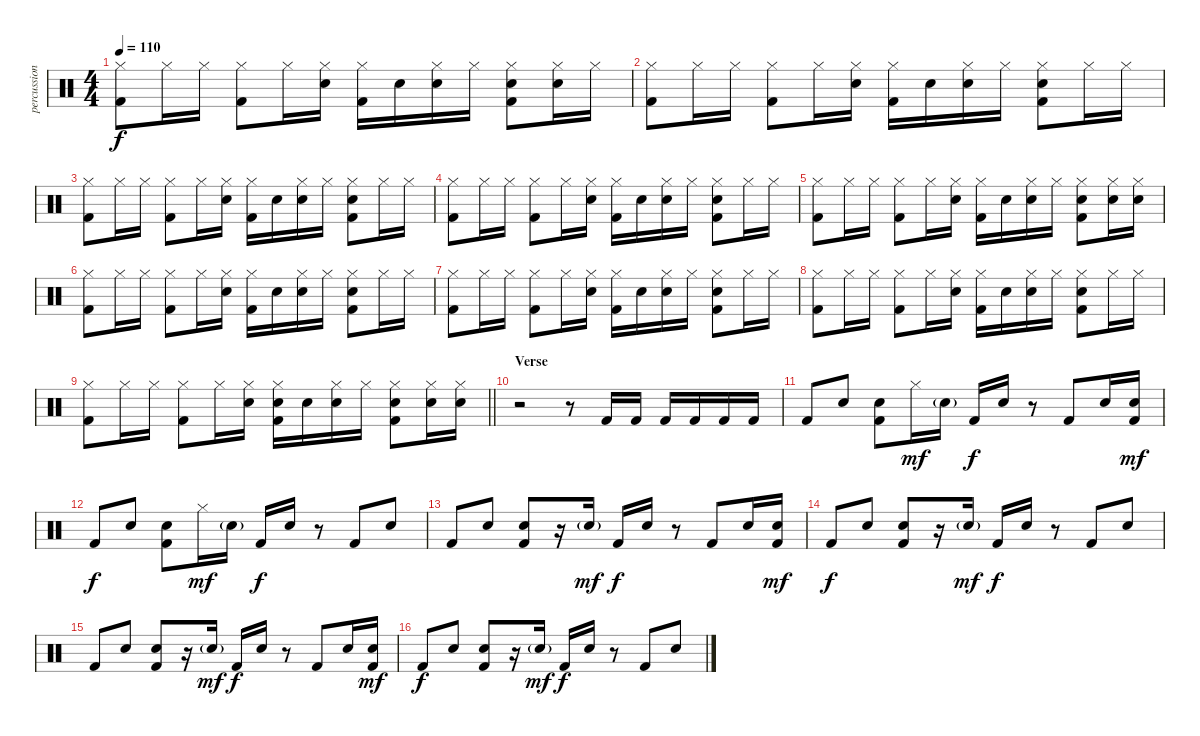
\track ("percussion []" "percussion") {instrument percussion}
\staff {score}
\articulation defaults
\ts (4 4)
\tempo 110
\clef neutral
\ks c
("Hi-Hat (closed)" "Kick (hit) 2").8{dy f} "Hi-Hat (closed)".16 "Hi-Hat (closed)".16 ("Hi-Hat (closed)" "Kick (hit) 2").8 "Hi-Hat (closed)".16 ("Electric Snare (hit)" "Hi-Hat (closed)").16 ("Hi-Hat (closed)" "Kick (hit) 2").16 "Electric Snare (hit)".16 ("Electric Snare (hit)" "Hi-Hat (closed)").16 "Hi-Hat (closed)".16 ("Electric Snare (hit)" "Hi-Hat (closed)" "Kick (hit) 2").8 ("Electric Snare (hit)" "Hi-Hat (closed)").16 "Hi-Hat (closed)".16 |
("Hi-Hat (closed)" "Kick (hit) 2").8 "Hi-Hat (closed)".16 "Hi-Hat (closed)".16 ("Hi-Hat (closed)" "Kick (hit) 2").8 "Hi-Hat (closed)".16 ("Electric Snare (hit)" "Hi-Hat (closed)").16 ("Hi-Hat (closed)" "Kick (hit) 2").16 "Electric Snare (hit)".16 ("Electric Snare (hit)" "Hi-Hat (closed)").16 "Hi-Hat (closed)".16 ("Electric Snare (hit)" "Hi-Hat (closed)" "Kick (hit) 2").8 "Hi-Hat (closed)".16 "Hi-Hat (closed)".16 |
("Hi-Hat (closed)" "Kick (hit) 2").8 "Hi-Hat (closed)".16 "Hi-Hat (closed)".16 ("Hi-Hat (closed)" "Kick (hit) 2").8 "Hi-Hat (closed)".16 ("Electric Snare (hit)" "Hi-Hat (closed)").16 ("Hi-Hat (closed)" "Kick (hit) 2").16 "Electric Snare (hit)".16 ("Electric Snare (hit)" "Hi-Hat (closed)").16 "Hi-Hat (closed)".16 ("Electric Snare (hit)" "Hi-Hat (closed)" "Kick (hit) 2").8 "Hi-Hat (closed)".16 "Hi-Hat (closed)".16 |
("Hi-Hat (closed)" "Kick (hit) 2").8 "Hi-Hat (closed)".16 "Hi-Hat (closed)".16 ("Hi-Hat (closed)" "Kick (hit) 2").8 "Hi-Hat (closed)".16 ("Electric Snare (hit)" "Hi-Hat (closed)").16 ("Hi-Hat (closed)" "Kick (hit) 2").16 "Electric Snare (hit)".16 ("Electric Snare (hit)" "Hi-Hat (closed)").16 "Hi-Hat (closed)".16 ("Electric Snare (hit)" "Hi-Hat (closed)" "Kick (hit) 2").8 "Hi-Hat (closed)".16 "Hi-Hat (closed)".16 |
("Hi-Hat (closed)" "Kick (hit) 2").8 "Hi-Hat (closed)".16 "Hi-Hat (closed)".16 ("Hi-Hat (closed)" "Kick (hit) 2").8 "Hi-Hat (closed)".16 ("Electric Snare (hit)" "Hi-Hat (closed)").16 ("Hi-Hat (closed)" "Kick (hit) 2").16 "Electric Snare (hit)".16 ("Electric Snare (hit)" "Hi-Hat (closed)").16 "Hi-Hat (closed)".16 ("Electric Snare (hit)" "Hi-Hat (closed)" "Kick (hit) 2").8 ("Electric Snare (hit)" "Hi-Hat (closed)").16 ("Electric Snare (hit)" "Hi-Hat (closed)").16 |
("Hi-Hat (closed)" "Kick (hit) 2").8 "Hi-Hat (closed)".16 "Hi-Hat (closed)".16 ("Hi-Hat (closed)" "Kick (hit) 2").8 "Hi-Hat (closed)".16 ("Electric Snare (hit)" "Hi-Hat (closed)").16 ("Hi-Hat (closed)" "Kick (hit) 2").16 "Electric Snare (hit)".16 ("Electric Snare (hit)" "Hi-Hat (closed)").16 "Hi-Hat (closed)".16 ("Electric Snare (hit)" "Hi-Hat (closed)" "Kick (hit) 2").8 "Hi-Hat (closed)".16 "Hi-Hat (closed)".16 |
("Hi-Hat (closed)" "Kick (hit) 2").8 "Hi-Hat (closed)".16 "Hi-Hat (closed)".16 ("Hi-Hat (closed)" "Kick (hit) 2").8 "Hi-Hat (closed)".16 ("Electric Snare (hit)" "Hi-Hat (closed)").16 ("Hi-Hat (closed)" "Kick (hit) 2").16 "Electric Snare (hit)".16 ("Electric Snare (hit)" "Hi-Hat (closed)").16 "Hi-Hat (closed)".16 ("Electric Snare (hit)" "Hi-Hat (closed)" "Kick (hit) 2").8 "Hi-Hat (closed)".16 "Hi-Hat (closed)".16 |
("Hi-Hat (closed)" "Kick (hit) 2").8 "Hi-Hat (closed)".16 "Hi-Hat (closed)".16 ("Hi-Hat (closed)" "Kick (hit) 2").8 "Hi-Hat (closed)".16 ("Electric Snare (hit)" "Hi-Hat (closed)").16 ("Hi-Hat (closed)" "Kick (hit) 2").16 "Electric Snare (hit)".16 ("Electric Snare (hit)" "Hi-Hat (closed)").16 "Hi-Hat (closed)".16 ("Electric Snare (hit)" "Hi-Hat (closed)" "Kick (hit) 2").8 "Hi-Hat (closed)".16 "Hi-Hat (closed)".16 |
\barLineRight lightlight
("Hi-Hat (closed)" "Kick (hit) 2").8 "Hi-Hat (closed)".16 "Hi-Hat (closed)".16 ("Hi-Hat (closed)" "Kick (hit) 2").8 "Hi-Hat (closed)".16 ("Electric Snare (hit)" "Hi-Hat (closed)").16 ("Electric Snare (hit)" "Hi-Hat (closed)" "Kick (hit) 2").16 "Electric Snare (hit)".16 ("Electric Snare (hit)" "Hi-Hat (closed)").16 "Hi-Hat (closed)".16 ("Electric Snare (hit)" "Hi-Hat (closed)" "Kick (hit) 2").8 ("Electric Snare (hit)" "Hi-Hat (closed)").16 ("Electric Snare (hit)" "Hi-Hat (closed)").16 |
\section ("" "Verse")
r.2 r.8 "Kick (hit) 2".16 "Kick (hit) 2".16 "Kick (hit) 2".16 "Kick (hit) 2".16 "Kick (hit) 2".16 "Kick (hit) 2".16 |
"Kick (hit) 2".8 "Electric Snare (hit)".8 ("Electric Snare (hit)" "Kick (hit) 2").8 "Hi-Hat (closed)".16{dy mf} "Electric Snare (hit)"{g}.16 "Kick (hit) 2".16{dy f} "Electric Snare (hit)".16 r.8 "Kick (hit) 2".8 "Electric Snare (hit)".16 ("Electric Snare (hit)" "Kick (hit) 2").16{dy mf} |
"Kick (hit) 2".8{dy f} "Electric Snare (hit)".8 ("Electric Snare (hit)" "Kick (hit) 2").8 "Hi-Hat (closed)".16{dy mf} "Electric Snare (hit)"{g}.16 "Kick (hit) 2".16{dy f} "Electric Snare (hit)".16 r.8 "Kick (hit) 2".8 "Electric Snare (hit)".8 |
"Kick (hit) 2".8 "Electric Snare (hit)".8 ("Electric Snare (hit)" "Kick (hit) 2").8 r.16 "Electric Snare (hit)"{g}.16{dy mf} "Kick (hit) 2".16{dy f} "Electric Snare (hit)".16 r.8 "Kick (hit) 2".8 "Electric Snare (hit)".16 ("Electric Snare (hit)" "Kick (hit) 2").16{dy mf} |
"Kick (hit) 2".8{dy f} "Electric Snare (hit)".8 ("Electric Snare (hit)" "Kick (hit) 2").8 r.16 "Electric Snare (hit)"{g}.16{dy mf} "Kick (hit) 2".16{dy f} "Electric Snare (hit)".16 r.8 "Kick (hit) 2".8 "Electric Snare (hit)".8 |
"Kick (hit) 2".8 "Electric Snare (hit)".8 ("Electric Snare (hit)" "Kick (hit) 2").8 r.16 "Electric Snare (hit)"{g}.16{dy mf} "Kick (hit) 2".16{dy f} "Electric Snare (hit)".16 r.8 "Kick (hit) 2".8 "Electric Snare (hit)".16 ("Electric Snare (hit)" "Kick (hit) 2").16{dy mf} |
"Kick (hit) 2".8{dy f} "Electric Snare (hit)".8 ("Electric Snare (hit)" "Kick (hit) 2").8 r.16 "Electric Snare (hit)"{g}.16{dy mf} "Kick (hit) 2".16{dy f} "Electric Snare (hit)".16 r.8 "Kick (hit) 2".8 "Electric Snare (hit)".8
